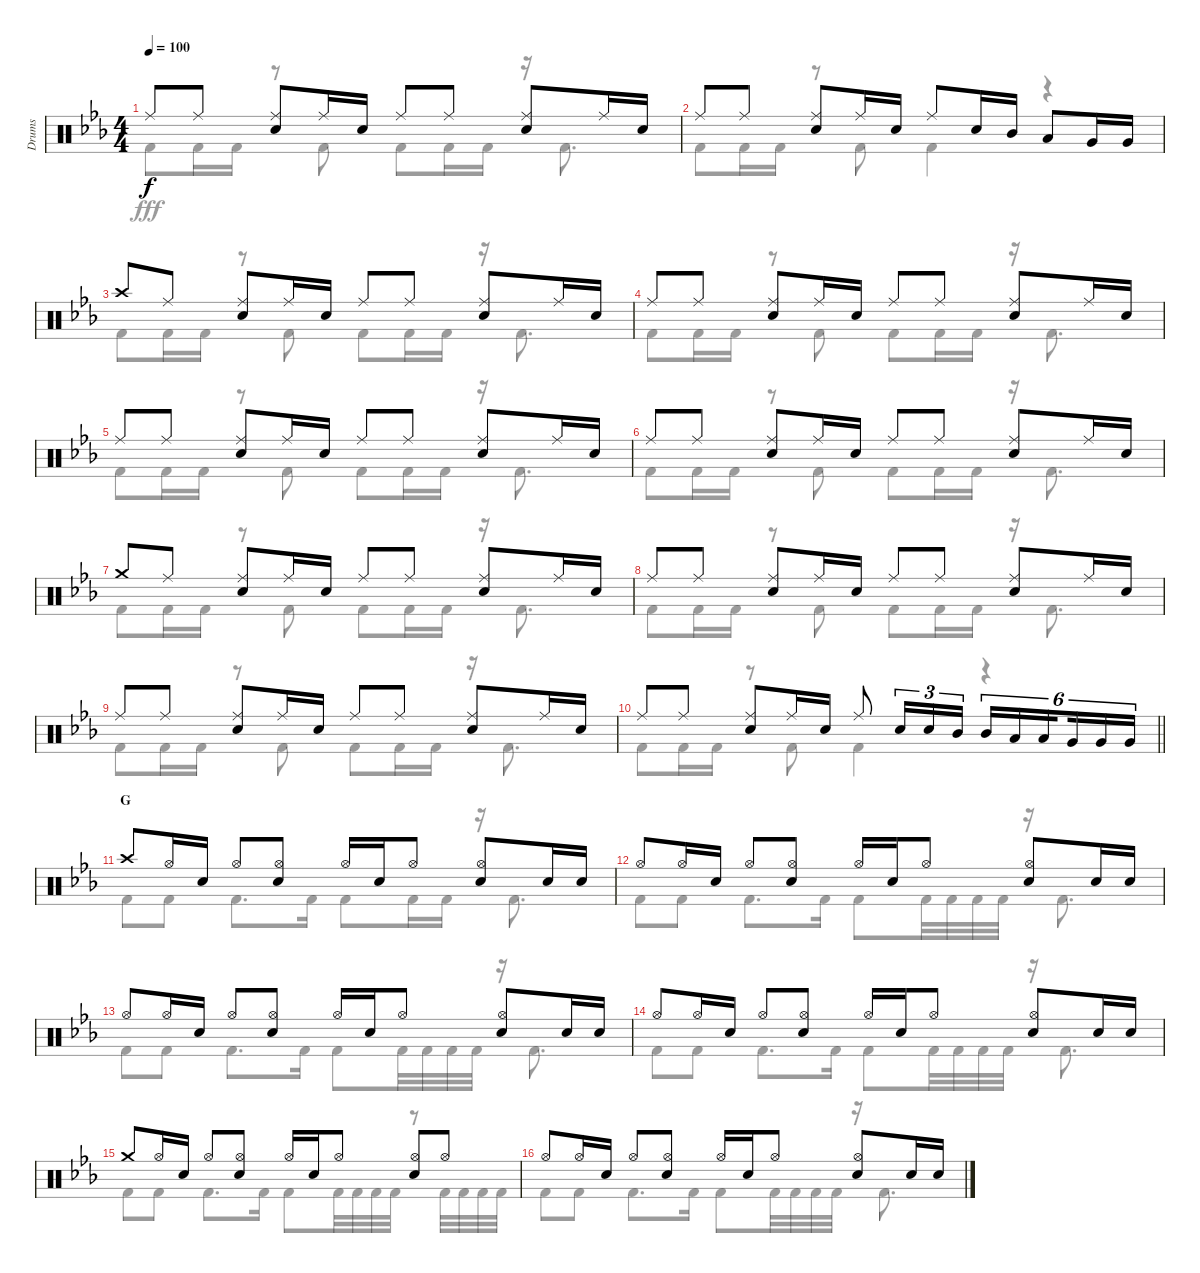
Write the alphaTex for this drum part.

\track ("Drums" "Drums") {instrument percussion}
\staff {score}
\articulation defaults
\voice
\ts (4 4)
\tempo 100
\clef neutral
\ks eb "Ride (middle)".8{dy f} "Ride (middle)".8
("Ride (middle)" "Snare (hit) 2").8 "Ride (middle)".16 "Snare (hit) 2".16 "Ride (middle)".8 "Ride (middle)".8 ("Ride (middle)" "Snare (hit) 2").8 "Ride (middle)".16 "Snare (hit) 2".16 |
"Ride (middle)".8 "Ride (middle)".8 ("Ride (middle)" "Snare (hit) 2").8 "Ride (middle)".16 "Snare (hit) 2".16 "Ride (middle)".8 "Snare (hit) 2".16 "Mid Tom (hit)".16 "Low Tom (hit)".8 "Very Low Tom (hit)".16 "Very Low Tom (hit)".16 |
"Crash high (hit)".8 "Ride (middle)".8 ("Ride (middle)" "Snare (hit) 2").8 "Ride (middle)".16 "Snare (hit) 2".16 "Ride (middle)".8 "Ride (middle)".8 ("Ride (middle)" "Snare (hit) 2").8 "Ride (middle)".16 "Snare (hit) 2".16 |
"Ride (middle)".8 "Ride (middle)".8 ("Ride (middle)" "Snare (hit) 2").8 "Ride (middle)".16 "Snare (hit) 2".16 "Ride (middle)".8 "Ride (middle)".8 ("Ride (middle)" "Snare (hit) 2").8 "Ride (middle)".16 "Snare (hit) 2".16 |
"Ride (middle)".8 "Ride (middle)".8 ("Ride (middle)" "Snare (hit) 2").8 "Ride (middle)".16 "Snare (hit) 2".16 "Ride (middle)".8 "Ride (middle)".8 ("Ride (middle)" "Snare (hit) 2").8 "Ride (middle)".16 "Snare (hit) 2".16 |
"Ride (middle)".8 "Ride (middle)".8 ("Ride (middle)" "Snare (hit) 2").8 "Ride (middle)".16 "Snare (hit) 2".16 "Ride (middle)".8 "Ride (middle)".8 ("Ride (middle)" "Snare (hit) 2").8 "Ride (middle)".16 "Snare (hit) 2".16 |
"Crash medium (hit)".8 "Ride (middle)".8 ("Ride (middle)" "Snare (hit) 2").8 "Ride (middle)".16 "Snare (hit) 2".16 "Ride (middle)".8 "Ride (middle)".8 ("Ride (middle)" "Snare (hit) 2").8 "Ride (middle)".16 "Snare (hit) 2".16 |
"Ride (middle)".8 "Ride (middle)".8 ("Ride (middle)" "Snare (hit) 2").8 "Ride (middle)".16 "Snare (hit) 2".16 "Ride (middle)".8 "Ride (middle)".8 ("Ride (middle)" "Snare (hit) 2").8 "Ride (middle)".16 "Snare (hit) 2".16 |
"Ride (middle)".8 "Ride (middle)".8 ("Ride (middle)" "Snare (hit) 2").8 "Ride (middle)".16 "Snare (hit) 2".16 "Ride (middle)".8 "Ride (middle)".8 ("Ride (middle)" "Snare (hit) 2").8 "Ride (middle)".16 "Snare (hit) 2".16 |
\barLineRight lightlight "Ride (middle)".8 "Ride (middle)".8
("Ride (middle)" "Snare (hit) 2").8 "Ride (middle)".16 "Snare (hit) 2".16 "Ride (middle)".8 "Snare (hit) 2".16{tu (3 2)} "Snare (hit) 2".16{tu (3 2)} "Mid Tom (hit)".16{tu (3 2)} "Mid Tom (hit)".16{tu (6 4)} "Low Tom (hit)".16{tu (6 4)} "Low Tom (hit)".16{tu (6 4) beam splitsecondary} "Very Low Tom (hit)".16{tu (6 4)} "Very Low Tom (hit)".16{tu (6 4)} "Very Low Tom (hit)".16{tu (6 4)} |
\section ("" "G")
"Crash high (hit)".8 "Hi-Hat (open)".16 "Snare (hit) 2".16 "Hi-Hat (open)".8 ("Hi-Hat (open)" "Snare (hit) 2").8 "Hi-Hat (open)".16 "Snare (hit) 2".16 "Hi-Hat (open)".8 ("Hi-Hat (open)" "Snare (hit) 2").8 "Snare (hit) 2".16 "Snare (hit) 2".16 |
"Hi-Hat (open)".8 "Hi-Hat (open)".16 "Snare (hit) 2".16 "Hi-Hat (open)".8 ("Hi-Hat (open)" "Snare (hit) 2").8 "Hi-Hat (open)".16 "Snare (hit) 2".16 "Hi-Hat (open)".8 ("Hi-Hat (open)" "Snare (hit) 2").8 "Snare (hit) 2".16 "Snare (hit) 2".16 |
"Hi-Hat (open)".8 "Hi-Hat (open)".16 "Snare (hit) 2".16 "Hi-Hat (open)".8 ("Hi-Hat (open)" "Snare (hit) 2").8 "Hi-Hat (open)".16 "Snare (hit) 2".16 "Hi-Hat (open)".8 ("Hi-Hat (open)" "Snare (hit) 2").8 "Snare (hit) 2".16 "Snare (hit) 2".16 |
"Hi-Hat (open)".8 "Hi-Hat (open)".16 "Snare (hit) 2".16 "Hi-Hat (open)".8 ("Hi-Hat (open)" "Snare (hit) 2").8 "Hi-Hat (open)".16 "Snare (hit) 2".16 "Hi-Hat (open)".8 ("Hi-Hat (open)" "Snare (hit) 2").8 "Snare (hit) 2".16 "Snare (hit) 2".16 |
"Crash medium (hit)".8 "Hi-Hat (open)".16 "Snare (hit) 2".16 "Hi-Hat (open)".8 ("Hi-Hat (open)" "Snare (hit) 2").8 "Hi-Hat (open)".16 "Snare (hit) 2".16 "Hi-Hat (open)".8 ("Hi-Hat (open)" "Snare (hit) 2").8 "Hi-Hat (open)".8 |
"Hi-Hat (open)".8 "Hi-Hat (open)".16 "Snare (hit) 2".16 "Hi-Hat (open)".8 ("Hi-Hat (open)" "Snare (hit) 2").8 "Hi-Hat (open)".16 "Snare (hit) 2".16 "Hi-Hat (open)".8 ("Hi-Hat (open)" "Snare (hit) 2").8 "Snare (hit) 2".16 "Snare (hit) 2".16
\voice
\clef neutral
\ottava regular
\simile none
\ks eb "Kick (hit) 2".8{dy fff} "Kick (hit) 2".16 "Kick (hit) 2".16
r.8 "Kick (hit) 2".8 "Kick (hit) 2".8 "Kick (hit) 2".16 "Kick (hit) 2".16 r.16 "Kick (hit) 2".8{d} |
"Kick (hit) 2".8 "Kick (hit) 2".16 "Kick (hit) 2".16 r.8 "Kick (hit) 2".8 "Kick (hit) 2".4 r.4 |
"Kick (hit) 2".8 "Kick (hit) 2".16 "Kick (hit) 2".16 r.8 "Kick (hit) 2".8 "Kick (hit) 2".8 "Kick (hit) 2".16 "Kick (hit) 2".16 r.16 "Kick (hit) 2".8{d} |
"Kick (hit) 2".8 "Kick (hit) 2".16 "Kick (hit) 2".16 r.8 "Kick (hit) 2".8 "Kick (hit) 2".8 "Kick (hit) 2".16 "Kick (hit) 2".16 r.16 "Kick (hit) 2".8{d} |
"Kick (hit) 2".8 "Kick (hit) 2".16 "Kick (hit) 2".16 r.8 "Kick (hit) 2".8 "Kick (hit) 2".8 "Kick (hit) 2".16 "Kick (hit) 2".16 r.16 "Kick (hit) 2".8{d} |
"Kick (hit) 2".8 "Kick (hit) 2".16 "Kick (hit) 2".16 r.8 "Kick (hit) 2".8 "Kick (hit) 2".8 "Kick (hit) 2".16 "Kick (hit) 2".16 r.16 "Kick (hit) 2".8{d} |
"Kick (hit) 2".8 "Kick (hit) 2".16 "Kick (hit) 2".16 r.8 "Kick (hit) 2".8 "Kick (hit) 2".8 "Kick (hit) 2".16 "Kick (hit) 2".16 r.16 "Kick (hit) 2".8{d} |
"Kick (hit) 2".8 "Kick (hit) 2".16 "Kick (hit) 2".16 r.8 "Kick (hit) 2".8 "Kick (hit) 2".8 "Kick (hit) 2".16 "Kick (hit) 2".16 r.16 "Kick (hit) 2".8{d} |
"Kick (hit) 2".8 "Kick (hit) 2".16 "Kick (hit) 2".16 r.8 "Kick (hit) 2".8 "Kick (hit) 2".8 "Kick (hit) 2".16 "Kick (hit) 2".16 r.16 "Kick (hit) 2".8{d} |
\barLineRight lightlight "Kick (hit) 2".8 "Kick (hit) 2".16 "Kick (hit) 2".16
r.8 "Kick (hit) 2".8 "Kick (hit) 2".4 r.4 |
"Kick (hit) 2".8 "Kick (hit) 2".8 "Kick (hit) 2".8{d} "Kick (hit) 2".16 "Kick (hit) 2".8 "Kick (hit) 2".16 "Kick (hit) 2".16 r.16 "Kick (hit) 2".8{d} |
"Kick (hit) 2".8 "Kick (hit) 2".8 "Kick (hit) 2".8{d} "Kick (hit) 2".16 "Kick (hit) 2".8 "Kick (hit) 2".32 "Kick (hit) 2".32 "Kick (hit) 2".32 "Kick (hit) 2".32 r.16 "Kick (hit) 2".8{d} |
"Kick (hit) 2".8 "Kick (hit) 2".8 "Kick (hit) 2".8{d} "Kick (hit) 2".16 "Kick (hit) 2".8 "Kick (hit) 2".32 "Kick (hit) 2".32 "Kick (hit) 2".32 "Kick (hit) 2".32 r.16 "Kick (hit) 2".8{d} |
"Kick (hit) 2".8 "Kick (hit) 2".8 "Kick (hit) 2".8{d} "Kick (hit) 2".16 "Kick (hit) 2".8 "Kick (hit) 2".32 "Kick (hit) 2".32 "Kick (hit) 2".32 "Kick (hit) 2".32 r.16 "Kick (hit) 2".8{d} |
"Kick (hit) 2".8 "Kick (hit) 2".8 "Kick (hit) 2".8{d} "Kick (hit) 2".16 "Kick (hit) 2".8 "Kick (hit) 2".32 "Kick (hit) 2".32 "Kick (hit) 2".32 "Kick (hit) 2".32 r.8 "Kick (hit) 2".32 "Kick (hit) 2".32 "Kick (hit) 2".32 "Kick (hit) 2".32 |
"Kick (hit) 2".8 "Kick (hit) 2".8 "Kick (hit) 2".8{d} "Kick (hit) 2".16 "Kick (hit) 2".8 "Kick (hit) 2".32 "Kick (hit) 2".32 "Kick (hit) 2".32 "Kick (hit) 2".32 r.16 "Kick (hit) 2".8{d}
